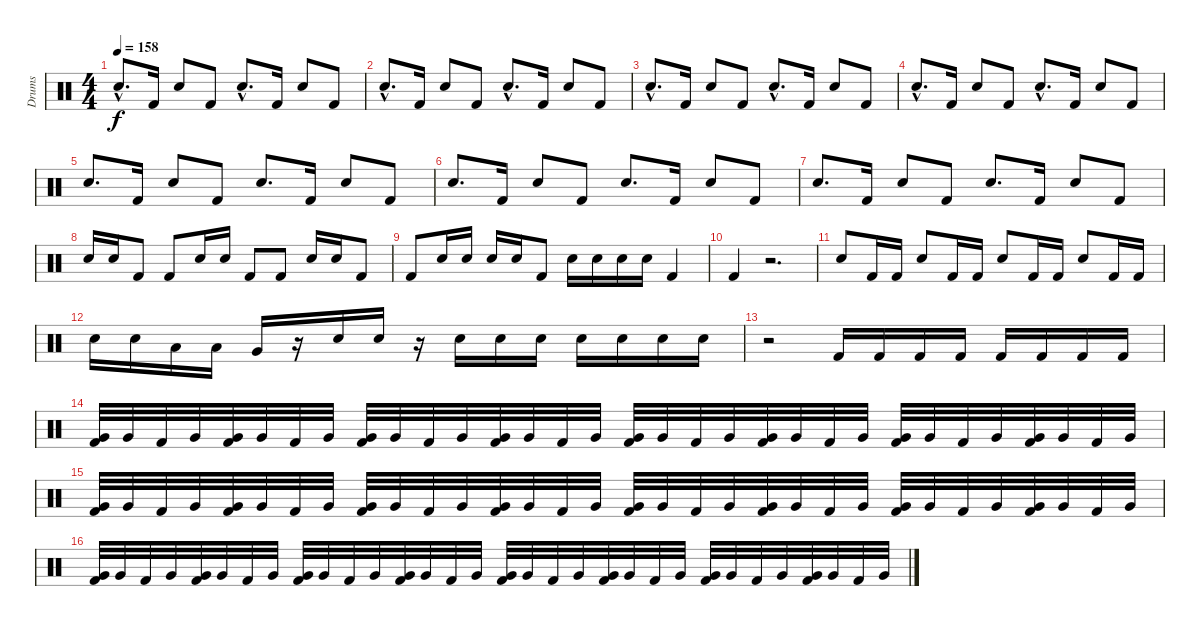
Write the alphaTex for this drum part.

\track ("Drums" "Drums") {instrument percussion}
\staff {score}
\articulation defaults
\ts (4 4)
\tempo 158
\clef neutral
\ks c "Snare (hit) 2"{hac}.8{d dy f} "Kick (hit) 2".16 "Snare (hit) 2".8 "Kick (hit) 2".8 "Snare (hit) 2"{hac}.8{d} "Kick (hit) 2".16 "Snare (hit) 2".8 "Kick (hit) 2".8
|
"Snare (hit) 2"{hac}.8{d} "Kick (hit) 2".16 "Snare (hit) 2".8 "Kick (hit) 2".8 "Snare (hit) 2"{hac}.8{d} "Kick (hit) 2".16 "Snare (hit) 2".8 "Kick (hit) 2".8 |
"Snare (hit) 2"{hac}.8{d} "Kick (hit) 2".16 "Snare (hit) 2".8 "Kick (hit) 2".8 "Snare (hit) 2"{hac}.8{d} "Kick (hit) 2".16 "Snare (hit) 2".8 "Kick (hit) 2".8 |
"Snare (hit) 2"{hac}.8{d} "Kick (hit) 2".16 "Snare (hit) 2".8 "Kick (hit) 2".8 "Snare (hit) 2"{hac}.8{d} "Kick (hit) 2".16 "Snare (hit) 2".8 "Kick (hit) 2".8 |
"Snare (hit) 2".8{d} "Kick (hit) 2".16 "Snare (hit) 2".8 "Kick (hit) 2".8 "Snare (hit) 2".8{d} "Kick (hit) 2".16 "Snare (hit) 2".8 "Kick (hit) 2".8 |
"Snare (hit) 2".8{d} "Kick (hit) 2".16 "Snare (hit) 2".8 "Kick (hit) 2".8 "Snare (hit) 2".8{d} "Kick (hit) 2".16 "Snare (hit) 2".8 "Kick (hit) 2".8 |
"Snare (hit) 2".8{d} "Kick (hit) 2".16 "Snare (hit) 2".8 "Kick (hit) 2".8 "Snare (hit) 2".8{d} "Kick (hit) 2".16 "Snare (hit) 2".8 "Kick (hit) 2".8 |
"Snare (hit) 2".16 "Snare (hit) 2".16 "Kick (hit) 2".8 "Kick (hit) 2".8 "Snare (hit) 2".16 "Snare (hit) 2".16 "Kick (hit) 2".8 "Kick (hit) 2".8 "Snare (hit) 2".16 "Snare (hit) 2".16 "Kick (hit) 2".8 |
"Kick (hit) 2".8 "Snare (hit) 2".16 "Snare (hit) 2".16 "Snare (hit) 2".16 "Snare (hit) 2".16 "Kick (hit) 2".8 "Snare (hit) 2".16 "Snare (hit) 2".16 "Snare (hit) 2".16 "Snare (hit) 2".16 "Kick (hit) 2".4 |
"Kick (hit) 2".4 r.2{d} |
"Snare (hit) 2".8 "Kick (hit) 2".16 "Kick (hit) 2".16 "Snare (hit) 2".8 "Kick (hit) 2".16 "Kick (hit) 2".16 "Snare (hit) 2".8 "Kick (hit) 2".16 "Kick (hit) 2".16 "Snare (hit) 2".8 "Kick (hit) 2".16 "Kick (hit) 2".16 |
"Snare (hit) 2".16 "Snare (hit) 2".16 "Low Tom (hit)".16 "Low Tom (hit)".16 "Very Low Tom (hit)".16 r.16 "Snare (hit) 2".16 "Snare (hit) 2".16 r.16 "Snare (hit) 2".16 "Snare (hit) 2".16 "Snare (hit) 2".16 "Snare (hit) 2".16 "Snare (hit) 2".16 "Snare (hit) 2".16 "Snare (hit) 2".16 |
r.2 "Kick (hit) 2".16 "Kick (hit) 2".16 "Kick (hit) 2".16 "Kick (hit) 2".16 "Kick (hit) 2".16 "Kick (hit) 2".16 "Kick (hit) 2".16 "Kick (hit) 2".16 |
("Very Low Tom (hit)" "Kick (hit) 2").32 "Very Low Tom (hit)".32 "Kick (hit) 2".32 "Very Low Tom (hit)".32 ("Very Low Tom (hit)" "Kick (hit) 2").32 "Very Low Tom (hit)".32 "Kick (hit) 2".32 "Very Low Tom (hit)".32 ("Very Low Tom (hit)" "Kick (hit) 2").32 "Very Low Tom (hit)".32 "Kick (hit) 2".32 "Very Low Tom (hit)".32 ("Very Low Tom (hit)" "Kick (hit) 2").32 "Very Low Tom (hit)".32 "Kick (hit) 2".32 "Very Low Tom (hit)".32 ("Very Low Tom (hit)" "Kick (hit) 2").32 "Very Low Tom (hit)".32 "Kick (hit) 2".32 "Very Low Tom (hit)".32 ("Very Low Tom (hit)" "Kick (hit) 2").32 "Very Low Tom (hit)".32 "Kick (hit) 2".32 "Very Low Tom (hit)".32 ("Very Low Tom (hit)" "Kick (hit) 2").32 "Very Low Tom (hit)".32 "Kick (hit) 2".32 "Very Low Tom (hit)".32 ("Very Low Tom (hit)" "Kick (hit) 2").32 "Very Low Tom (hit)".32 "Kick (hit) 2".32 "Very Low Tom (hit)".32 |
("Very Low Tom (hit)" "Kick (hit) 2").32 "Very Low Tom (hit)".32 "Kick (hit) 2".32 "Very Low Tom (hit)".32 ("Very Low Tom (hit)" "Kick (hit) 2").32 "Very Low Tom (hit)".32 "Kick (hit) 2".32 "Very Low Tom (hit)".32 ("Very Low Tom (hit)" "Kick (hit) 2").32 "Very Low Tom (hit)".32 "Kick (hit) 2".32 "Very Low Tom (hit)".32 ("Very Low Tom (hit)" "Kick (hit) 2").32 "Very Low Tom (hit)".32 "Kick (hit) 2".32 "Very Low Tom (hit)".32 ("Very Low Tom (hit)" "Kick (hit) 2").32 "Very Low Tom (hit)".32 "Kick (hit) 2".32 "Very Low Tom (hit)".32 ("Very Low Tom (hit)" "Kick (hit) 2").32 "Very Low Tom (hit)".32 "Kick (hit) 2".32 "Very Low Tom (hit)".32 ("Very Low Tom (hit)" "Kick (hit) 2").32 "Very Low Tom (hit)".32 "Kick (hit) 2".32 "Very Low Tom (hit)".32 ("Very Low Tom (hit)" "Kick (hit) 2").32 "Very Low Tom (hit)".32 "Kick (hit) 2".32 "Very Low Tom (hit)".32 |
("Very Low Tom (hit)" "Kick (hit) 2").32 "Very Low Tom (hit)".32 "Kick (hit) 2".32 "Very Low Tom (hit)".32 ("Very Low Tom (hit)" "Kick (hit) 2").32 "Very Low Tom (hit)".32 "Kick (hit) 2".32 "Very Low Tom (hit)".32 ("Very Low Tom (hit)" "Kick (hit) 2").32 "Very Low Tom (hit)".32 "Kick (hit) 2".32 "Very Low Tom (hit)".32 ("Very Low Tom (hit)" "Kick (hit) 2").32 "Very Low Tom (hit)".32 "Kick (hit) 2".32 "Very Low Tom (hit)".32 ("Very Low Tom (hit)" "Kick (hit) 2").32 "Very Low Tom (hit)".32 "Kick (hit) 2".32 "Very Low Tom (hit)".32 ("Very Low Tom (hit)" "Kick (hit) 2").32 "Very Low Tom (hit)".32 "Kick (hit) 2".32 "Very Low Tom (hit)".32 ("Very Low Tom (hit)" "Kick (hit) 2").32 "Very Low Tom (hit)".32 "Kick (hit) 2".32 "Very Low Tom (hit)".32 ("Very Low Tom (hit)" "Kick (hit) 2").32 "Very Low Tom (hit)".32 "Kick (hit) 2".32 "Very Low Tom (hit)".32
